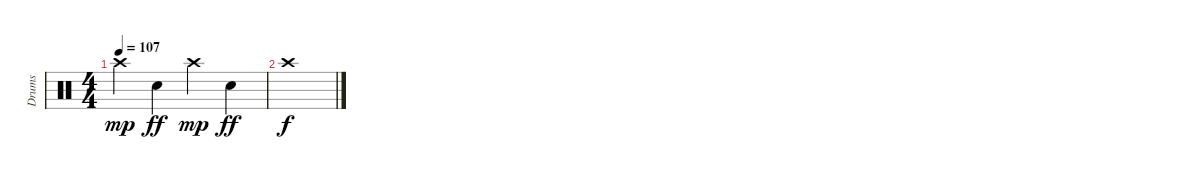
\track ("Drums" "Drums") {instrument percussion}
\staff {score}
\articulation defaults
\ts (4 4)
\tempo 107
\clef neutral
\ks c "Crash high (hit)".4{dy mp} "Electric Snare (hit)".4{dy ff} "Crash high (hit)".4{dy mp} "Electric Snare (hit)".4{dy ff}
|
"Crash high (hit)".1{dy f}
